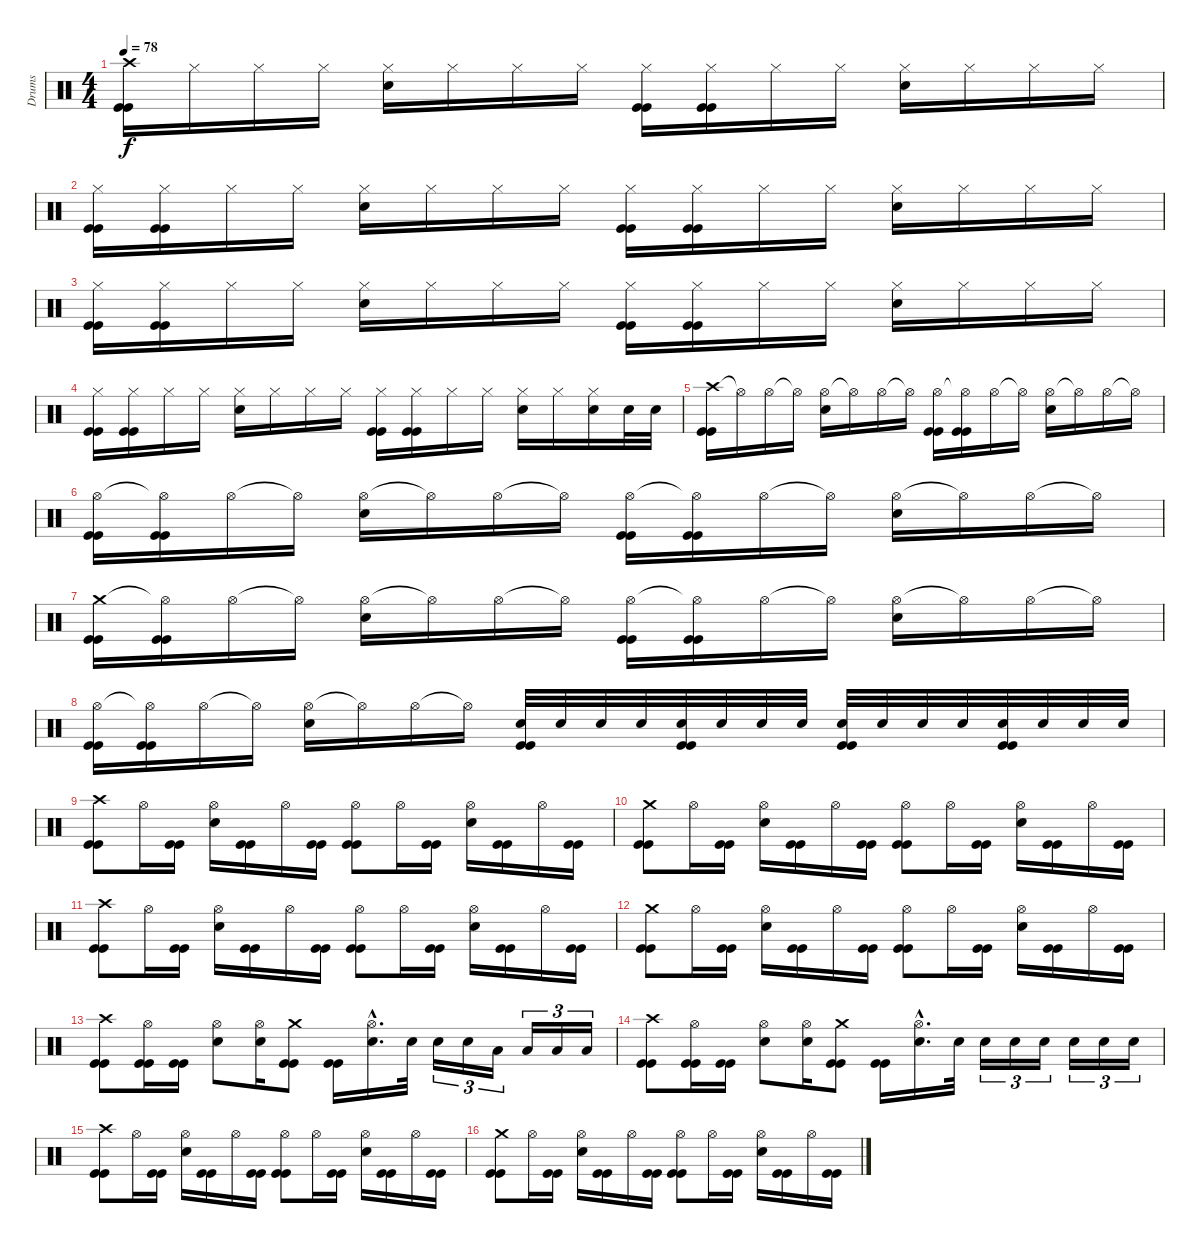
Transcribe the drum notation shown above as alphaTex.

\track ("Drums" "Drums") {instrument percussion}
\staff {score}
\articulation defaults
\ts (4 4)
\tempo 78
\clef neutral
\ks c
("Crash high (hit)" "Kick (hit)" "Kick (hit)").16{dy f} "Hi-Hat (closed)".16 "Hi-Hat (closed)".16 "Hi-Hat (closed)".16 ("Hi-Hat (closed)" "Electric Snare (hit)").16 "Hi-Hat (closed)".16 "Hi-Hat (closed)".16 "Hi-Hat (closed)".16 ("Hi-Hat (closed)" "Kick (hit)" "Kick (hit)").16 ("Hi-Hat (closed)" "Kick (hit)" "Kick (hit)").16 "Hi-Hat (closed)".16 "Hi-Hat (closed)".16 ("Hi-Hat (closed)" "Electric Snare (hit)").16 "Hi-Hat (closed)".16 "Hi-Hat (closed)".16 "Hi-Hat (closed)".16 |
("Hi-Hat (closed)" "Kick (hit)" "Kick (hit)").16 ("Hi-Hat (closed)" "Kick (hit)" "Kick (hit)").16 "Hi-Hat (closed)".16 "Hi-Hat (closed)".16 ("Hi-Hat (closed)" "Electric Snare (hit)").16 "Hi-Hat (closed)".16 "Hi-Hat (closed)".16 "Hi-Hat (closed)".16 ("Hi-Hat (closed)" "Kick (hit)" "Kick (hit)").16 ("Hi-Hat (closed)" "Kick (hit)" "Kick (hit)").16 "Hi-Hat (closed)".16 "Hi-Hat (closed)".16 ("Hi-Hat (closed)" "Electric Snare (hit)").16 "Hi-Hat (closed)".16 "Hi-Hat (closed)".16 "Hi-Hat (closed)".16 |
("Hi-Hat (closed)" "Kick (hit)" "Kick (hit)").16 ("Hi-Hat (closed)" "Kick (hit)" "Kick (hit)").16 "Hi-Hat (closed)".16 "Hi-Hat (closed)".16 ("Hi-Hat (closed)" "Electric Snare (hit)").16 "Hi-Hat (closed)".16 "Hi-Hat (closed)".16 "Hi-Hat (closed)".16 ("Hi-Hat (closed)" "Kick (hit)" "Kick (hit)").16 ("Hi-Hat (closed)" "Kick (hit)" "Kick (hit)").16 "Hi-Hat (closed)".16 "Hi-Hat (closed)".16 ("Hi-Hat (closed)" "Electric Snare (hit)").16 "Hi-Hat (closed)".16 "Hi-Hat (closed)".16 "Hi-Hat (closed)".16 |
("Hi-Hat (closed)" "Kick (hit)" "Kick (hit)").16 ("Hi-Hat (closed)" "Kick (hit)" "Kick (hit)").16 "Hi-Hat (closed)".16 "Hi-Hat (closed)".16 ("Hi-Hat (closed)" "Electric Snare (hit)").16 "Hi-Hat (closed)".16 "Hi-Hat (closed)".16 "Hi-Hat (closed)".16 ("Hi-Hat (closed)" "Kick (hit)" "Kick (hit)").16 ("Hi-Hat (closed)" "Kick (hit)" "Kick (hit)").16 "Hi-Hat (closed)".16 "Hi-Hat (closed)".16 ("Hi-Hat (closed)" "Electric Snare (hit)").16 "Hi-Hat (closed)".16 ("Hi-Hat (closed)" "Electric Snare (hit)").16 "Electric Snare (hit)".32 "Electric Snare (hit)".32 |
("Crash high (hit)" "Kick (hit)" "Kick (hit)").16 "Hi-Hat (open)"{t}.16 "Hi-Hat (open)".16 "Hi-Hat (open)"{t}.16 ("Hi-Hat (open)" "Electric Snare (hit)").16 "Hi-Hat (open)"{t}.16 "Hi-Hat (open)".16 "Hi-Hat (open)"{t}.16 ("Hi-Hat (open)" "Kick (hit)" "Kick (hit)").16 ("Hi-Hat (open)"{t} "Kick (hit)" "Kick (hit)").16 "Hi-Hat (open)".16 "Hi-Hat (open)"{t}.16 ("Hi-Hat (open)" "Electric Snare (hit)").16 "Hi-Hat (open)"{t}.16 "Hi-Hat (open)".16 "Hi-Hat (open)"{t}.16 |
("Hi-Hat (open)" "Kick (hit)" "Kick (hit)").16 ("Hi-Hat (open)"{t} "Kick (hit)" "Kick (hit)").16 "Hi-Hat (open)".16 "Hi-Hat (open)"{t}.16 ("Hi-Hat (open)" "Electric Snare (hit)").16 "Hi-Hat (open)"{t}.16 "Hi-Hat (open)".16 "Hi-Hat (open)"{t}.16 ("Hi-Hat (open)" "Kick (hit)" "Kick (hit)").16 ("Hi-Hat (open)"{t} "Kick (hit)" "Kick (hit)").16 "Hi-Hat (open)".16 "Hi-Hat (open)"{t}.16 ("Hi-Hat (open)" "Electric Snare (hit)").16 "Hi-Hat (open)"{t}.16 "Hi-Hat (open)".16 "Hi-Hat (open)"{t}.16 |
("Crash medium (hit)" "Kick (hit)" "Kick (hit)").16 ("Hi-Hat (open)"{t} "Kick (hit)" "Kick (hit)").16 "Hi-Hat (open)".16 "Hi-Hat (open)"{t}.16 ("Hi-Hat (open)" "Electric Snare (hit)").16 "Hi-Hat (open)"{t}.16 "Hi-Hat (open)".16 "Hi-Hat (open)"{t}.16 ("Hi-Hat (open)" "Kick (hit)" "Kick (hit)").16 ("Hi-Hat (open)"{t} "Kick (hit)" "Kick (hit)").16 "Hi-Hat (open)".16 "Hi-Hat (open)"{t}.16 ("Hi-Hat (open)" "Electric Snare (hit)").16 "Hi-Hat (open)"{t}.16 "Hi-Hat (open)".16 "Hi-Hat (open)"{t}.16 |
("Hi-Hat (open)" "Kick (hit)" "Kick (hit)").16 ("Hi-Hat (open)"{t} "Kick (hit)" "Kick (hit)").16 "Hi-Hat (open)".16 "Hi-Hat (open)"{t}.16 ("Hi-Hat (open)" "Electric Snare (hit)").16 "Hi-Hat (open)"{t}.16 "Hi-Hat (open)".16 "Hi-Hat (open)"{t}.16 ("Electric Snare (hit)" "Kick (hit)" "Kick (hit)").32 "Electric Snare (hit)".32 "Electric Snare (hit)".32 "Electric Snare (hit)".32 ("Electric Snare (hit)" "Kick (hit)" "Kick (hit)").32 "Electric Snare (hit)".32 "Electric Snare (hit)".32 "Electric Snare (hit)".32 ("Electric Snare (hit)" "Kick (hit)" "Kick (hit)").32 "Electric Snare (hit)".32 "Electric Snare (hit)".32 "Electric Snare (hit)".32 ("Electric Snare (hit)" "Kick (hit)" "Kick (hit)").32 "Electric Snare (hit)".32 "Electric Snare (hit)".32 "Electric Snare (hit)".32 |
("Crash high (hit)" "Kick (hit)" "Kick (hit)").8 "Hi-Hat (open)".16 ("Kick (hit)" "Kick (hit)").16 ("Hi-Hat (open)" "Electric Snare (hit)").16 ("Kick (hit)" "Kick (hit)").16 "Hi-Hat (open)".16 ("Kick (hit)" "Kick (hit)").16 ("Hi-Hat (open)" "Kick (hit)" "Kick (hit)").8 "Hi-Hat (open)".16 ("Kick (hit)" "Kick (hit)").16 ("Hi-Hat (open)" "Electric Snare (hit)").16 ("Kick (hit)" "Kick (hit)").16 "Hi-Hat (open)".16 ("Kick (hit)" "Kick (hit)").16 |
("Crash medium (hit)" "Kick (hit)" "Kick (hit)").8 "Hi-Hat (open)".16 ("Kick (hit)" "Kick (hit)").16 ("Hi-Hat (open)" "Electric Snare (hit)").16 ("Kick (hit)" "Kick (hit)").16 "Hi-Hat (open)".16 ("Kick (hit)" "Kick (hit)").16 ("Hi-Hat (open)" "Kick (hit)" "Kick (hit)").8 "Hi-Hat (open)".16 ("Kick (hit)" "Kick (hit)").16 ("Hi-Hat (open)" "Electric Snare (hit)").16 ("Kick (hit)" "Kick (hit)").16 "Hi-Hat (open)".16 ("Kick (hit)" "Kick (hit)").16 |
("Crash high (hit)" "Kick (hit)" "Kick (hit)").8 "Hi-Hat (open)".16 ("Kick (hit)" "Kick (hit)").16 ("Hi-Hat (open)" "Electric Snare (hit)").16 ("Kick (hit)" "Kick (hit)").16 "Hi-Hat (open)".16 ("Kick (hit)" "Kick (hit)").16 ("Hi-Hat (open)" "Kick (hit)" "Kick (hit)").8 "Hi-Hat (open)".16 ("Kick (hit)" "Kick (hit)").16 ("Hi-Hat (open)" "Electric Snare (hit)").16 ("Kick (hit)" "Kick (hit)").16 "Hi-Hat (open)".16 ("Kick (hit)" "Kick (hit)").16 |
("Crash medium (hit)" "Kick (hit)" "Kick (hit)").8 "Hi-Hat (open)".16 ("Kick (hit)" "Kick (hit)").16 ("Hi-Hat (open)" "Electric Snare (hit)").16 ("Kick (hit)" "Kick (hit)").16 "Hi-Hat (open)".16 ("Kick (hit)" "Kick (hit)").16 ("Hi-Hat (open)" "Kick (hit)" "Kick (hit)").8 "Hi-Hat (open)".16 ("Kick (hit)" "Kick (hit)").16 ("Hi-Hat (open)" "Electric Snare (hit)").16 ("Kick (hit)" "Kick (hit)").16 "Hi-Hat (open)".16 ("Kick (hit)" "Kick (hit)").16 |
("Crash high (hit)" "Kick (hit)" "Kick (hit)").8 ("Hi-Hat (open)" "Kick (hit)" "Kick (hit)").16 ("Kick (hit)" "Kick (hit)").16 ("Hi-Hat (open)" "Electric Snare (hit)").8 ("Hi-Hat (open)" "Electric Snare (hit)").16 ("Crash medium (hit)" "Kick (hit)" "Kick (hit)").8 ("Kick (hit)" "Kick (hit)").16 ("Hi-Hat (open)"{hac} "Electric Snare (hit)"{hac}).16{d} "Electric Snare (hit)".32 "Electric Snare (hit)".16{tu (3 2)} "Electric Snare (hit)".16{tu (3 2)} "Low Tom (hit)".16{tu (3 2)} "Low Floor Tom (hit)".16{tu (3 2)} "Low Floor Tom (hit)".16{tu (3 2)} "Low Floor Tom (hit)".16{tu (3 2)} |
("Crash high (hit)" "Kick (hit)" "Kick (hit)").8 ("Hi-Hat (open)" "Kick (hit)" "Kick (hit)").16 ("Kick (hit)" "Kick (hit)").16 ("Hi-Hat (open)" "Electric Snare (hit)").8 ("Hi-Hat (open)" "Electric Snare (hit)").16 ("Crash medium (hit)" "Kick (hit)" "Kick (hit)").8 ("Kick (hit)" "Kick (hit)").16 ("Hi-Hat (open)"{hac} "Electric Snare (hit)"{hac}).16{d} "Electric Snare (hit)".32 "Electric Snare (hit)".16{tu (3 2)} "Electric Snare (hit)".16{tu (3 2)} "Electric Snare (hit)".16{tu (3 2)} "Electric Snare (hit)".16{tu (3 2)} "Electric Snare (hit)".16{tu (3 2)} "Electric Snare (hit)".16{tu (3 2)} |
("Crash high (hit)" "Kick (hit)" "Kick (hit)").8 "Hi-Hat (open)".16 ("Kick (hit)" "Kick (hit)").16 ("Hi-Hat (open)" "Electric Snare (hit)").16 ("Kick (hit)" "Kick (hit)").16 "Hi-Hat (open)".16 ("Kick (hit)" "Kick (hit)").16 ("Hi-Hat (open)" "Kick (hit)" "Kick (hit)").8 "Hi-Hat (open)".16 ("Kick (hit)" "Kick (hit)").16 ("Hi-Hat (open)" "Electric Snare (hit)").16 ("Kick (hit)" "Kick (hit)").16 "Hi-Hat (open)".16 ("Kick (hit)" "Kick (hit)").16 |
("Crash medium (hit)" "Kick (hit)" "Kick (hit)").8 "Hi-Hat (open)".16 ("Kick (hit)" "Kick (hit)").16 ("Hi-Hat (open)" "Electric Snare (hit)").16 ("Kick (hit)" "Kick (hit)").16 "Hi-Hat (open)".16 ("Kick (hit)" "Kick (hit)").16 ("Hi-Hat (open)" "Kick (hit)" "Kick (hit)").8 "Hi-Hat (open)".16 ("Kick (hit)" "Kick (hit)").16 ("Hi-Hat (open)" "Electric Snare (hit)").16 ("Kick (hit)" "Kick (hit)").16 "Hi-Hat (open)".16 ("Kick (hit)" "Kick (hit)").16
